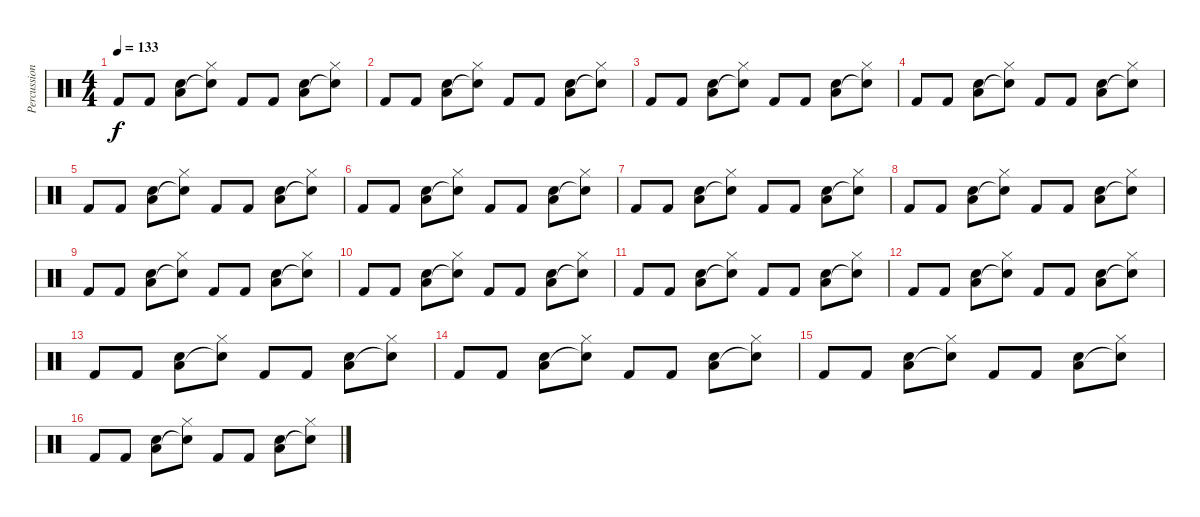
\track ("Percussions" "Percussion") {instrument percussion}
\staff {score}
\articulation defaults
\ts (4 4)
\tempo 133
\clef neutral
\ks c "Kick (hit) 2".8{dy f} "Kick (hit) 2".8
("Snare (hit) 2" "Low Floor Tom (hit)").8 ("Hi-Hat (closed)" "Snare (hit)"{t}).8 "Kick (hit) 2".8 "Kick (hit) 2".8 ("Snare (hit) 2" "Low Floor Tom (hit)").8 ("Hi-Hat (closed)" "Snare (hit)"{t}).8 |
"Kick (hit) 2".8 "Kick (hit) 2".8 ("Snare (hit) 2" "Low Floor Tom (hit)").8 ("Hi-Hat (closed)" "Snare (hit)"{t}).8 "Kick (hit) 2".8 "Kick (hit) 2".8 ("Snare (hit) 2" "Low Floor Tom (hit)").8 ("Hi-Hat (closed)" "Snare (hit)"{t}).8 |
"Kick (hit) 2".8 "Kick (hit) 2".8 ("Snare (hit) 2" "Low Floor Tom (hit)").8 ("Hi-Hat (closed)" "Snare (hit)"{t}).8 "Kick (hit) 2".8 "Kick (hit) 2".8 ("Snare (hit) 2" "Low Floor Tom (hit)").8 ("Hi-Hat (closed)" "Snare (hit)"{t}).8 |
"Kick (hit) 2".8 "Kick (hit) 2".8 ("Snare (hit) 2" "Low Floor Tom (hit)").8 ("Hi-Hat (closed)" "Snare (hit)"{t}).8 "Kick (hit) 2".8 "Kick (hit) 2".8 ("Snare (hit) 2" "Low Floor Tom (hit)").8 ("Hi-Hat (closed)" "Snare (hit)"{t}).8 |
"Kick (hit) 2".8 "Kick (hit) 2".8 ("Snare (hit) 2" "Low Floor Tom (hit)").8 ("Hi-Hat (closed)" "Snare (hit)"{t}).8 "Kick (hit) 2".8 "Kick (hit) 2".8 ("Snare (hit) 2" "Low Floor Tom (hit)").8 ("Hi-Hat (closed)" "Snare (hit)"{t}).8 |
"Kick (hit) 2".8 "Kick (hit) 2".8 ("Snare (hit) 2" "Low Floor Tom (hit)").8 ("Hi-Hat (closed)" "Snare (hit)"{t}).8 "Kick (hit) 2".8 "Kick (hit) 2".8 ("Snare (hit) 2" "Low Floor Tom (hit)").8 ("Hi-Hat (closed)" "Snare (hit)"{t}).8 |
"Kick (hit) 2".8 "Kick (hit) 2".8 ("Snare (hit) 2" "Low Floor Tom (hit)").8 ("Hi-Hat (closed)" "Snare (hit)"{t}).8 "Kick (hit) 2".8 "Kick (hit) 2".8 ("Snare (hit) 2" "Low Floor Tom (hit)").8 ("Hi-Hat (closed)" "Snare (hit)"{t}).8 |
"Kick (hit) 2".8 "Kick (hit) 2".8 ("Snare (hit) 2" "Low Floor Tom (hit)").8 ("Hi-Hat (closed)" "Snare (hit)"{t}).8 "Kick (hit) 2".8 "Kick (hit) 2".8 ("Snare (hit) 2" "Low Floor Tom (hit)").8 ("Hi-Hat (closed)" "Snare (hit)"{t}).8 |
"Kick (hit) 2".8 "Kick (hit) 2".8 ("Snare (hit) 2" "Low Floor Tom (hit)").8 ("Hi-Hat (closed)" "Snare (hit)"{t}).8 "Kick (hit) 2".8 "Kick (hit) 2".8 ("Snare (hit) 2" "Low Floor Tom (hit)").8 ("Hi-Hat (closed)" "Snare (hit)"{t}).8 |
"Kick (hit) 2".8 "Kick (hit) 2".8 ("Snare (hit) 2" "Low Floor Tom (hit)").8 ("Hi-Hat (closed)" "Snare (hit)"{t}).8 "Kick (hit) 2".8 "Kick (hit) 2".8 ("Snare (hit) 2" "Low Floor Tom (hit)").8 ("Hi-Hat (closed)" "Snare (hit)"{t}).8 |
"Kick (hit) 2".8 "Kick (hit) 2".8 ("Snare (hit) 2" "Low Floor Tom (hit)").8 ("Hi-Hat (closed)" "Snare (hit)"{t}).8 "Kick (hit) 2".8 "Kick (hit) 2".8 ("Snare (hit) 2" "Low Floor Tom (hit)").8 ("Hi-Hat (closed)" "Snare (hit)"{t}).8 |
"Kick (hit) 2".8 "Kick (hit) 2".8 ("Snare (hit) 2" "Low Floor Tom (hit)").8 ("Hi-Hat (closed)" "Snare (hit)"{t}).8 "Kick (hit) 2".8 "Kick (hit) 2".8 ("Snare (hit) 2" "Low Floor Tom (hit)").8 ("Hi-Hat (closed)" "Snare (hit)"{t}).8 |
"Kick (hit) 2".8 "Kick (hit) 2".8 ("Snare (hit) 2" "Low Floor Tom (hit)").8 ("Hi-Hat (closed)" "Snare (hit)"{t}).8 "Kick (hit) 2".8 "Kick (hit) 2".8 ("Snare (hit) 2" "Low Floor Tom (hit)").8 ("Hi-Hat (closed)" "Snare (hit)"{t}).8 |
"Kick (hit) 2".8 "Kick (hit) 2".8 ("Snare (hit) 2" "Low Floor Tom (hit)").8 ("Hi-Hat (closed)" "Snare (hit)"{t}).8 "Kick (hit) 2".8 "Kick (hit) 2".8 ("Snare (hit) 2" "Low Floor Tom (hit)").8 ("Hi-Hat (closed)" "Snare (hit)"{t}).8 |
"Kick (hit) 2".8 "Kick (hit) 2".8 ("Snare (hit) 2" "Low Floor Tom (hit)").8 ("Hi-Hat (closed)" "Snare (hit)"{t}).8 "Kick (hit) 2".8 "Kick (hit) 2".8 ("Snare (hit) 2" "Low Floor Tom (hit)").8 ("Hi-Hat (closed)" "Snare (hit)"{t}).8 |
"Kick (hit) 2".8 "Kick (hit) 2".8 ("Snare (hit) 2" "Low Floor Tom (hit)").8 ("Hi-Hat (closed)" "Snare (hit)"{t}).8 "Kick (hit) 2".8 "Kick (hit) 2".8 ("Snare (hit) 2" "Low Floor Tom (hit)").8 ("Hi-Hat (closed)" "Snare (hit)"{t}).8
